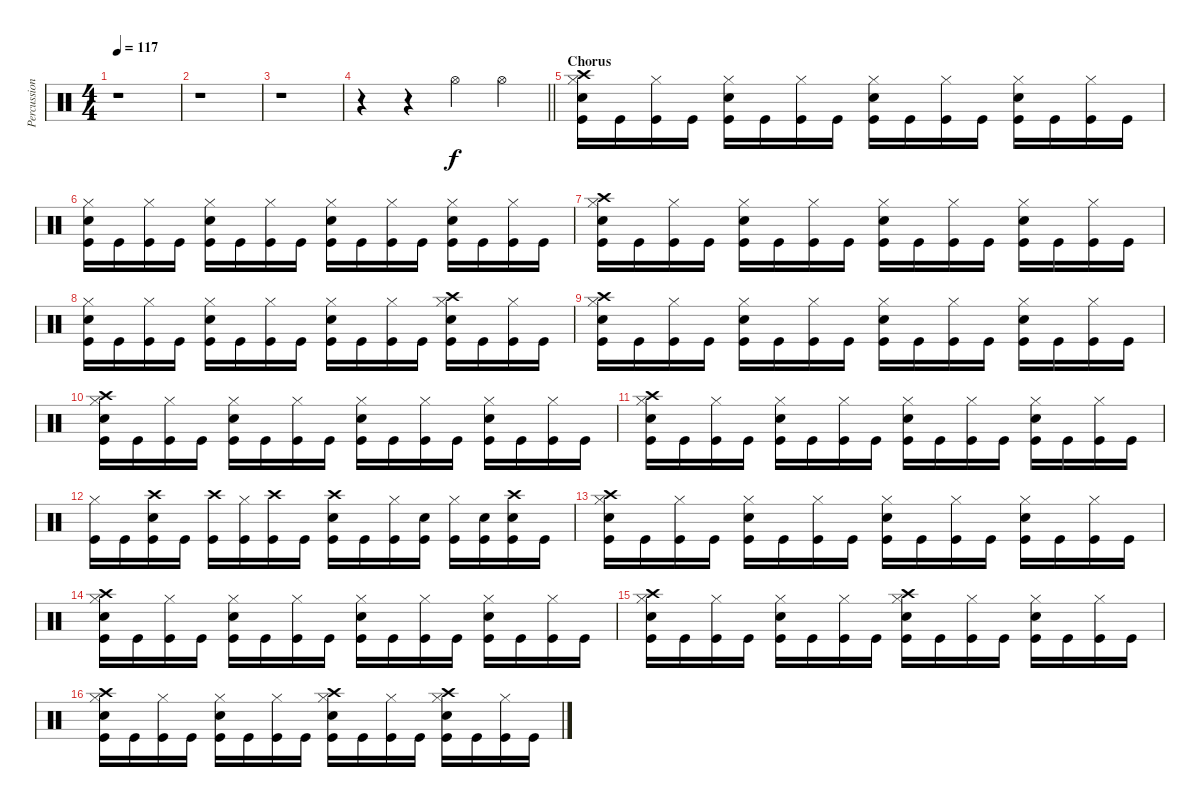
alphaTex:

\track ("Percussion" "Percussion") {instrument percussion}
\staff {score}
\articulation defaults
\ts (4 4)
\tempo 117
\clef neutral
\ks c
r.1{dy mp} |
r.1 |
r.1 |
\barLineRight lightlight
r.4 r.4 "Hi-Hat (open)".4{dy f} "Hi-Hat (open)".4 |
\section ("" "Chorus")
("Crash high (hit)" "Hi-Hat (closed)" "Snare (hit) 2" "Kick (hit)").16 "Kick (hit)".16 ("Hi-Hat (closed)" "Kick (hit)").16 "Kick (hit)".16 ("Hi-Hat (closed)" "Snare (hit) 2" "Kick (hit)").16 "Kick (hit)".16 ("Hi-Hat (closed)" "Kick (hit)").16 "Kick (hit)".16 ("Hi-Hat (closed)" "Snare (hit) 2" "Kick (hit)").16 "Kick (hit)".16 ("Hi-Hat (closed)" "Kick (hit)").16 "Kick (hit)".16 ("Hi-Hat (closed)" "Snare (hit) 2" "Kick (hit)").16 "Kick (hit)".16 ("Hi-Hat (closed)" "Kick (hit)").16 "Kick (hit)".16 |
("Hi-Hat (closed)" "Snare (hit) 2" "Kick (hit)").16 "Kick (hit)".16 ("Hi-Hat (closed)" "Kick (hit)").16 "Kick (hit)".16 ("Hi-Hat (closed)" "Snare (hit) 2" "Kick (hit)").16 "Kick (hit)".16 ("Hi-Hat (closed)" "Kick (hit)").16 "Kick (hit)".16 ("Hi-Hat (closed)" "Snare (hit) 2" "Kick (hit)").16 "Kick (hit)".16 ("Hi-Hat (closed)" "Kick (hit)").16 "Kick (hit)".16 ("Hi-Hat (closed)" "Snare (hit) 2" "Kick (hit)").16 "Kick (hit)".16 ("Hi-Hat (closed)" "Kick (hit)").16 "Kick (hit)".16 |
("Crash high (hit)" "Hi-Hat (closed)" "Snare (hit) 2" "Kick (hit)").16 "Kick (hit)".16 ("Hi-Hat (closed)" "Kick (hit)").16 "Kick (hit)".16 ("Hi-Hat (closed)" "Snare (hit) 2" "Kick (hit)").16 "Kick (hit)".16 ("Hi-Hat (closed)" "Kick (hit)").16 "Kick (hit)".16 ("Hi-Hat (closed)" "Snare (hit) 2" "Kick (hit)").16 "Kick (hit)".16 ("Hi-Hat (closed)" "Kick (hit)").16 "Kick (hit)".16 ("Hi-Hat (closed)" "Snare (hit) 2" "Kick (hit)").16 "Kick (hit)".16 ("Hi-Hat (closed)" "Kick (hit)").16 "Kick (hit)".16 |
("Hi-Hat (closed)" "Snare (hit) 2" "Kick (hit)").16 "Kick (hit)".16 ("Hi-Hat (closed)" "Kick (hit)").16 "Kick (hit)".16 ("Hi-Hat (closed)" "Snare (hit) 2" "Kick (hit)").16 "Kick (hit)".16 ("Hi-Hat (closed)" "Kick (hit)").16 "Kick (hit)".16 ("Hi-Hat (closed)" "Snare (hit) 2" "Kick (hit)").16 "Kick (hit)".16 ("Hi-Hat (closed)" "Kick (hit)").16 "Kick (hit)".16 ("Crash high (hit)" "Hi-Hat (closed)" "Snare (hit) 2" "Kick (hit)").16 "Kick (hit)".16 ("Hi-Hat (closed)" "Kick (hit)").16 "Kick (hit)".16 |
("Crash high (hit)" "Hi-Hat (closed)" "Snare (hit) 2" "Kick (hit)").16 "Kick (hit)".16 ("Hi-Hat (closed)" "Kick (hit)").16 "Kick (hit)".16 ("Hi-Hat (closed)" "Snare (hit) 2" "Kick (hit)").16 "Kick (hit)".16 ("Hi-Hat (closed)" "Kick (hit)").16 "Kick (hit)".16 ("Hi-Hat (closed)" "Snare (hit) 2" "Kick (hit)").16 "Kick (hit)".16 ("Hi-Hat (closed)" "Kick (hit)").16 "Kick (hit)".16 ("Hi-Hat (closed)" "Snare (hit) 2" "Kick (hit)").16 "Kick (hit)".16 ("Hi-Hat (closed)" "Kick (hit)").16 "Kick (hit)".16 |
("Crash high (hit)" "Hi-Hat (closed)" "Snare (hit) 2" "Kick (hit)").16 "Kick (hit)".16 ("Hi-Hat (closed)" "Kick (hit)").16 "Kick (hit)".16 ("Hi-Hat (closed)" "Snare (hit) 2" "Kick (hit)").16 "Kick (hit)".16 ("Hi-Hat (closed)" "Kick (hit)").16 "Kick (hit)".16 ("Hi-Hat (closed)" "Snare (hit) 2" "Kick (hit)").16 "Kick (hit)".16 ("Hi-Hat (closed)" "Kick (hit)").16 "Kick (hit)".16 ("Hi-Hat (closed)" "Snare (hit) 2" "Kick (hit)").16 "Kick (hit)".16 ("Hi-Hat (closed)" "Kick (hit)").16 "Kick (hit)".16 |
("Crash high (hit)" "Hi-Hat (closed)" "Snare (hit) 2" "Kick (hit)").16 "Kick (hit)".16 ("Hi-Hat (closed)" "Kick (hit)").16 "Kick (hit)".16 ("Hi-Hat (closed)" "Snare (hit) 2" "Kick (hit)").16 "Kick (hit)".16 ("Hi-Hat (closed)" "Kick (hit)").16 "Kick (hit)".16 ("Hi-Hat (closed)" "Snare (hit) 2" "Kick (hit)").16 "Kick (hit)".16 ("Hi-Hat (closed)" "Kick (hit)").16 "Kick (hit)".16 ("Hi-Hat (closed)" "Snare (hit) 2" "Kick (hit)").16 "Kick (hit)".16 ("Hi-Hat (closed)" "Kick (hit)").16 "Kick (hit)".16 |
("Hi-Hat (closed)" "Kick (hit)").16 "Kick (hit)".16 ("Crash high (hit)" "Snare (hit) 2" "Kick (hit)").16 "Kick (hit)".16 ("Crash high (hit)" "Kick (hit)").16 ("Hi-Hat (closed)" "Kick (hit)").16 ("Crash high (hit)" "Kick (hit)").16 "Kick (hit)".16 ("Crash high (hit)" "Snare (hit) 2" "Kick (hit)").16 "Kick (hit)".16 ("Hi-Hat (closed)" "Kick (hit)").16 ("Snare (hit) 2" "Kick (hit)").16 ("Hi-Hat (closed)" "Kick (hit)").16 ("Snare (hit) 2" "Kick (hit)").16 ("Crash high (hit)" "Snare (hit) 2" "Kick (hit)").16 "Kick (hit)".16 |
("Crash high (hit)" "Hi-Hat (closed)" "Snare (hit) 2" "Kick (hit)").16 "Kick (hit)".16 ("Hi-Hat (closed)" "Kick (hit)").16 "Kick (hit)".16 ("Hi-Hat (closed)" "Snare (hit) 2" "Kick (hit)").16 "Kick (hit)".16 ("Hi-Hat (closed)" "Kick (hit)").16 "Kick (hit)".16 ("Hi-Hat (closed)" "Snare (hit) 2" "Kick (hit)").16 "Kick (hit)".16 ("Hi-Hat (closed)" "Kick (hit)").16 "Kick (hit)".16 ("Hi-Hat (closed)" "Snare (hit) 2" "Kick (hit)").16 "Kick (hit)".16 ("Hi-Hat (closed)" "Kick (hit)").16 "Kick (hit)".16 |
("Crash high (hit)" "Hi-Hat (closed)" "Snare (hit) 2" "Kick (hit)").16 "Kick (hit)".16 ("Hi-Hat (closed)" "Kick (hit)").16 "Kick (hit)".16 ("Hi-Hat (closed)" "Snare (hit) 2" "Kick (hit)").16 "Kick (hit)".16 ("Hi-Hat (closed)" "Kick (hit)").16 "Kick (hit)".16 ("Hi-Hat (closed)" "Snare (hit) 2" "Kick (hit)").16 "Kick (hit)".16 ("Hi-Hat (closed)" "Kick (hit)").16 "Kick (hit)".16 ("Hi-Hat (closed)" "Snare (hit) 2" "Kick (hit)").16 "Kick (hit)".16 ("Hi-Hat (closed)" "Kick (hit)").16 "Kick (hit)".16 |
("Crash high (hit)" "Hi-Hat (closed)" "Snare (hit) 2" "Kick (hit)").16 "Kick (hit)".16 ("Hi-Hat (closed)" "Kick (hit)").16 "Kick (hit)".16 ("Hi-Hat (closed)" "Snare (hit) 2" "Kick (hit)").16 "Kick (hit)".16 ("Hi-Hat (closed)" "Kick (hit)").16 "Kick (hit)".16 ("Crash high (hit)" "Hi-Hat (closed)" "Snare (hit) 2" "Kick (hit)").16 "Kick (hit)".16 ("Hi-Hat (closed)" "Kick (hit)").16 "Kick (hit)".16 ("Hi-Hat (closed)" "Snare (hit) 2" "Kick (hit)").16 "Kick (hit)".16 ("Hi-Hat (closed)" "Kick (hit)").16 "Kick (hit)".16 |
("Crash high (hit)" "Hi-Hat (closed)" "Snare (hit) 2" "Kick (hit)").16 "Kick (hit)".16 ("Hi-Hat (closed)" "Kick (hit)").16 "Kick (hit)".16 ("Hi-Hat (closed)" "Snare (hit) 2" "Kick (hit)").16 "Kick (hit)".16 ("Hi-Hat (closed)" "Kick (hit)").16 "Kick (hit)".16 ("Crash high (hit)" "Hi-Hat (closed)" "Snare (hit) 2" "Kick (hit)").16 "Kick (hit)".16 ("Hi-Hat (closed)" "Kick (hit)").16 "Kick (hit)".16 ("Crash high (hit)" "Hi-Hat (closed)" "Snare (hit) 2" "Kick (hit)").16 "Kick (hit)".16 ("Hi-Hat (closed)" "Kick (hit)").16 "Kick (hit)".16
